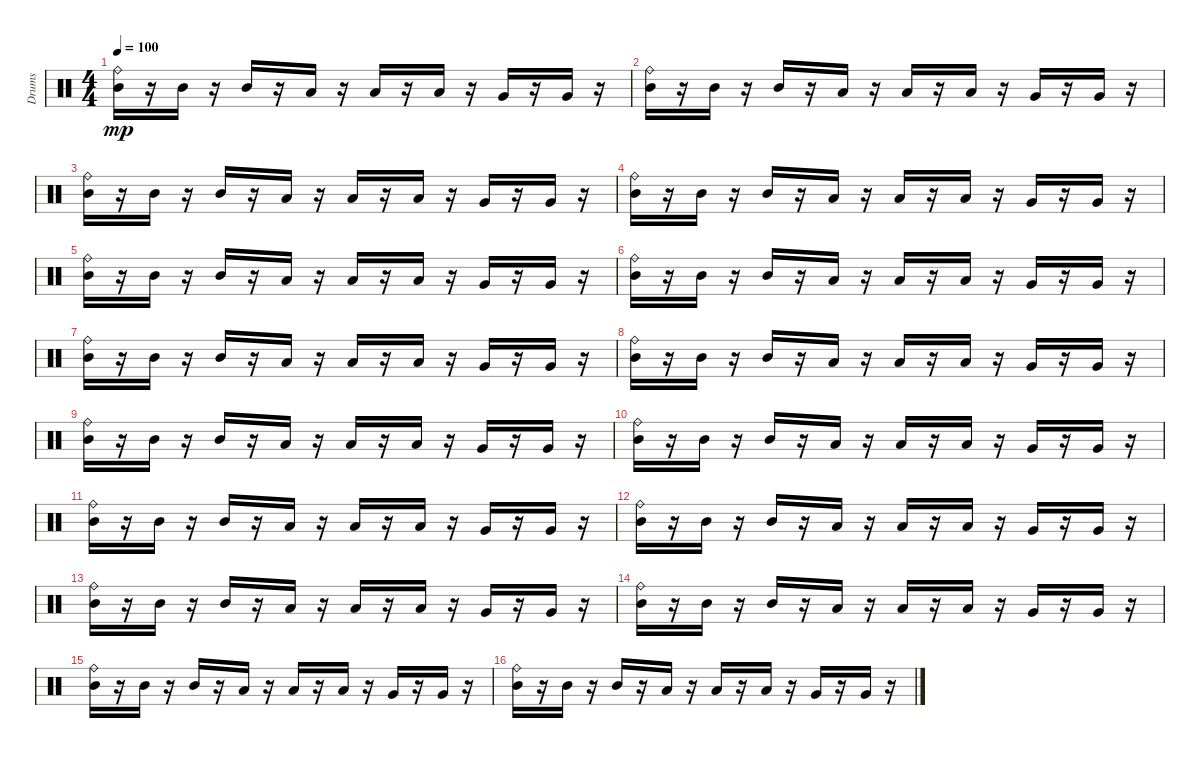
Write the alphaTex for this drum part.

\track ("Drums" "Drums") {instrument percussion}
\staff {score}
\articulation defaults
\ts (4 4)
\tempo 100
\clef neutral
\ks c
("Mid Tom (hit)" "Ride (bell)").16{dy mp} r.16 "Mid Tom (hit)".16 r.16 "Mid Tom (hit)".16 r.16 "Low Tom (hit)".16 r.16 "Low Tom (hit)".16 r.16 "Low Tom (hit)".16 r.16 "Very Low Tom (hit)".16 r.16 "Very Low Tom (hit)".16 r.16 |
("Mid Tom (hit)" "Ride (bell)").16 r.16 "Mid Tom (hit)".16 r.16 "Mid Tom (hit)".16 r.16 "Low Tom (hit)".16 r.16 "Low Tom (hit)".16 r.16 "Low Tom (hit)".16 r.16 "Very Low Tom (hit)".16 r.16 "Very Low Tom (hit)".16 r.16 |
("Mid Tom (hit)" "Ride (bell)").16 r.16 "Mid Tom (hit)".16 r.16 "Mid Tom (hit)".16 r.16 "Low Tom (hit)".16 r.16 "Low Tom (hit)".16 r.16 "Low Tom (hit)".16 r.16 "Very Low Tom (hit)".16 r.16 "Very Low Tom (hit)".16 r.16 |
("Mid Tom (hit)" "Ride (bell)").16 r.16 "Mid Tom (hit)".16 r.16 "Mid Tom (hit)".16 r.16 "Low Tom (hit)".16 r.16 "Low Tom (hit)".16 r.16 "Low Tom (hit)".16 r.16 "Very Low Tom (hit)".16 r.16 "Very Low Tom (hit)".16 r.16 |
("Mid Tom (hit)" "Ride (bell)").16 r.16 "Mid Tom (hit)".16 r.16 "Mid Tom (hit)".16 r.16 "Low Tom (hit)".16 r.16 "Low Tom (hit)".16 r.16 "Low Tom (hit)".16 r.16 "Very Low Tom (hit)".16 r.16 "Very Low Tom (hit)".16 r.16 |
("Mid Tom (hit)" "Ride (bell)").16 r.16 "Mid Tom (hit)".16 r.16 "Mid Tom (hit)".16 r.16 "Low Tom (hit)".16 r.16 "Low Tom (hit)".16 r.16 "Low Tom (hit)".16 r.16 "Very Low Tom (hit)".16 r.16 "Very Low Tom (hit)".16 r.16 |
("Mid Tom (hit)" "Ride (bell)").16 r.16 "Mid Tom (hit)".16 r.16 "Mid Tom (hit)".16 r.16 "Low Tom (hit)".16 r.16 "Low Tom (hit)".16 r.16 "Low Tom (hit)".16 r.16 "Very Low Tom (hit)".16 r.16 "Very Low Tom (hit)".16 r.16 |
("Mid Tom (hit)" "Ride (bell)").16 r.16 "Mid Tom (hit)".16 r.16 "Mid Tom (hit)".16 r.16 "Low Tom (hit)".16 r.16 "Low Tom (hit)".16 r.16 "Low Tom (hit)".16 r.16 "Very Low Tom (hit)".16 r.16 "Very Low Tom (hit)".16 r.16 |
("Mid Tom (hit)" "Ride (bell)").16 r.16 "Mid Tom (hit)".16 r.16 "Mid Tom (hit)".16 r.16 "Low Tom (hit)".16 r.16 "Low Tom (hit)".16 r.16 "Low Tom (hit)".16 r.16 "Very Low Tom (hit)".16 r.16 "Very Low Tom (hit)".16 r.16 |
("Mid Tom (hit)" "Ride (bell)").16 r.16 "Mid Tom (hit)".16 r.16 "Mid Tom (hit)".16 r.16 "Low Tom (hit)".16 r.16 "Low Tom (hit)".16 r.16 "Low Tom (hit)".16 r.16 "Very Low Tom (hit)".16 r.16 "Very Low Tom (hit)".16 r.16 |
("Mid Tom (hit)" "Ride (bell)").16 r.16 "Mid Tom (hit)".16 r.16 "Mid Tom (hit)".16 r.16 "Low Tom (hit)".16 r.16 "Low Tom (hit)".16 r.16 "Low Tom (hit)".16 r.16 "Very Low Tom (hit)".16 r.16 "Very Low Tom (hit)".16 r.16 |
("Mid Tom (hit)" "Ride (bell)").16 r.16 "Mid Tom (hit)".16 r.16 "Mid Tom (hit)".16 r.16 "Low Tom (hit)".16 r.16 "Low Tom (hit)".16 r.16 "Low Tom (hit)".16 r.16 "Very Low Tom (hit)".16 r.16 "Very Low Tom (hit)".16 r.16 |
("Mid Tom (hit)" "Ride (bell)").16 r.16 "Mid Tom (hit)".16 r.16 "Mid Tom (hit)".16 r.16 "Low Tom (hit)".16 r.16 "Low Tom (hit)".16 r.16 "Low Tom (hit)".16 r.16 "Very Low Tom (hit)".16 r.16 "Very Low Tom (hit)".16 r.16 |
("Mid Tom (hit)" "Ride (bell)").16 r.16 "Mid Tom (hit)".16 r.16 "Mid Tom (hit)".16 r.16 "Low Tom (hit)".16 r.16 "Low Tom (hit)".16 r.16 "Low Tom (hit)".16 r.16 "Very Low Tom (hit)".16 r.16 "Very Low Tom (hit)".16 r.16 |
("Mid Tom (hit)" "Ride (bell)").16 r.16 "Mid Tom (hit)".16 r.16 "Mid Tom (hit)".16 r.16 "Low Tom (hit)".16 r.16 "Low Tom (hit)".16 r.16 "Low Tom (hit)".16 r.16 "Very Low Tom (hit)".16 r.16 "Very Low Tom (hit)".16 r.16 |
("Mid Tom (hit)" "Ride (bell)").16 r.16 "Mid Tom (hit)".16 r.16 "Mid Tom (hit)".16 r.16 "Low Tom (hit)".16 r.16 "Low Tom (hit)".16 r.16 "Low Tom (hit)".16 r.16 "Very Low Tom (hit)".16 r.16 "Very Low Tom (hit)".16 r.16
